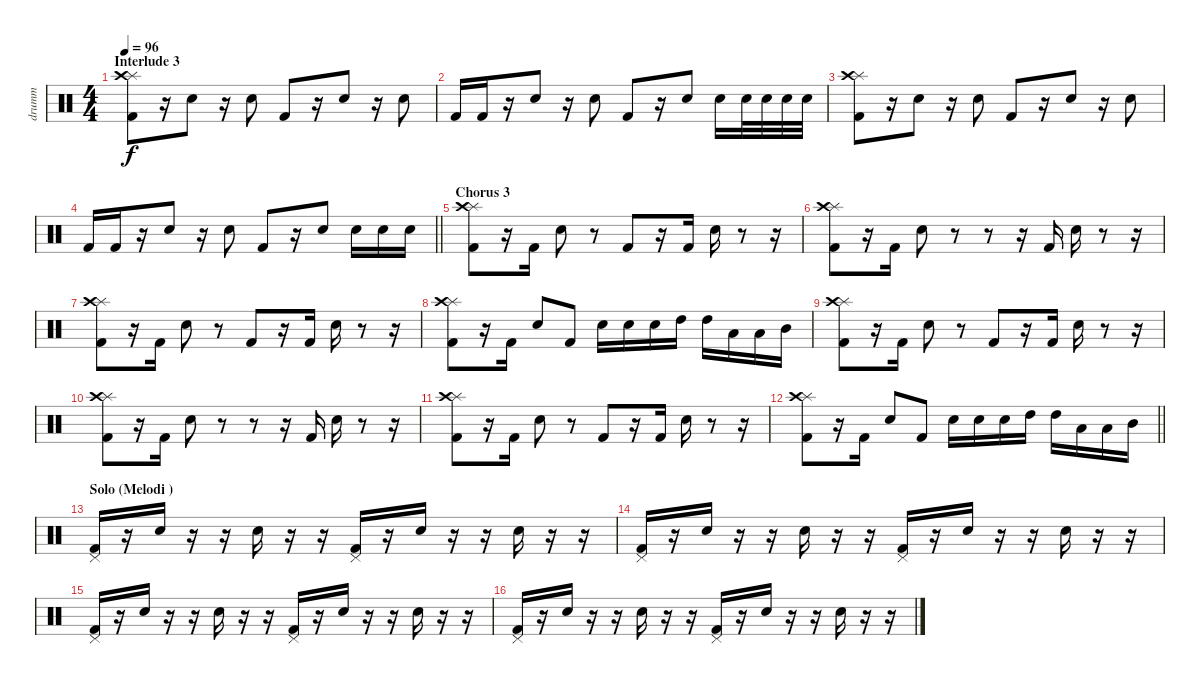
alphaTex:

\track ("drumm" "drumm") {instrument percussion}
\staff {score}
\articulation defaults
\ts (4 4)
\section ("" "Interlude 3")
\tempo 96
\clef neutral
\ks c
("Splash (hit)" "Crash high (hit)" "Kick (hit) 2").8{dy f} r.16 "Electric Snare (hit)".8 r.16 "Electric Snare (hit)".8 "Kick (hit) 2".8 r.16 "Electric Snare (hit)".8 r.16 "Electric Snare (hit)".8 |
"Kick (hit) 2".16 "Kick (hit) 2".16 r.16 "Electric Snare (hit)".8 r.16 "Electric Snare (hit)".8 "Kick (hit) 2".8 r.16 "Electric Snare (hit)".8 "Electric Snare (hit)".16 "Electric Snare (hit)".32 "Electric Snare (hit)".32 "Electric Snare (hit)".32 "Electric Snare (hit)".32 |
("Splash (hit)" "Crash high (hit)" "Kick (hit) 2").8 r.16 "Electric Snare (hit)".8 r.16 "Electric Snare (hit)".8 "Kick (hit) 2".8 r.16 "Electric Snare (hit)".8 r.16 "Electric Snare (hit)".8 |
\barLineRight lightlight "Kick (hit) 2".16 "Kick (hit) 2".16
r.16 "Electric Snare (hit)".8 r.16 "Electric Snare (hit)".8 "Kick (hit) 2".8 r.16 "Electric Snare (hit)".8 "Electric Snare (hit)".16 "Electric Snare (hit)".16 "Electric Snare (hit)".16 |
\section ("" "Chorus 3")
("Splash (hit)" "Crash high (hit)" "Kick (hit) 2").8 r.16 "Kick (hit) 2".16 "Electric Snare (hit)".8 r.8 "Kick (hit) 2".8 r.16 "Kick (hit) 2".16 "Electric Snare (hit)".16 r.8 r.16 |
("Splash (hit)" "Crash high (hit)" "Kick (hit) 2").8 r.16 "Kick (hit) 2".16 "Electric Snare (hit)".8 r.8 r.8 r.16 "Kick (hit) 2".16 "Electric Snare (hit)".16 r.8 r.16 |
("Splash (hit)" "Crash high (hit)" "Kick (hit) 2").8 r.16 "Kick (hit) 2".16 "Electric Snare (hit)".8 r.8 "Kick (hit) 2".8 r.16 "Kick (hit) 2".16 "Electric Snare (hit)".16 r.8 r.16 |
("Splash (hit)" "Crash high (hit)" "Kick (hit) 2").8 r.16 "Kick (hit) 2".16 "Electric Snare (hit)".8 "Kick (hit) 2".8 "Electric Snare (hit)".16 "Electric Snare (hit)".16 "Electric Snare (hit)".16 "High Tom (hit)".16 "High Tom (hit)".16 "Low Tom (hit)".16 "Low Tom (hit)".16 "Mid Tom (hit)".16 |
("Splash (hit)" "Crash high (hit)" "Kick (hit) 2").8 r.16 "Kick (hit) 2".16 "Electric Snare (hit)".8 r.8 "Kick (hit) 2".8 r.16 "Kick (hit) 2".16 "Electric Snare (hit)".16 r.8 r.16 |
("Splash (hit)" "Crash high (hit)" "Kick (hit) 2").8 r.16 "Kick (hit) 2".16 "Electric Snare (hit)".8 r.8 r.8 r.16 "Kick (hit) 2".16 "Electric Snare (hit)".16 r.8 r.16 |
("Splash (hit)" "Crash high (hit)" "Kick (hit) 2").8 r.16 "Kick (hit) 2".16 "Electric Snare (hit)".8 r.8 "Kick (hit) 2".8 r.16 "Kick (hit) 2".16 "Electric Snare (hit)".16 r.8 r.16 |
\barLineRight lightlight
("Splash (hit)" "Crash high (hit)" "Kick (hit) 2").8 r.16 "Kick (hit) 2".16 "Electric Snare (hit)".8 "Kick (hit) 2".8 "Electric Snare (hit)".16 "Electric Snare (hit)".16 "Electric Snare (hit)".16 "High Tom (hit)".16 "High Tom (hit)".16 "Low Tom (hit)".16 "Low Tom (hit)".16 "Mid Tom (hit)".16 |
\section ("" "Solo (Melodi )")
("Pedal Hi-Hat (hit)" "Kick (hit) 2").16 r.16 "Electric Snare (hit)".16 r.16 r.16 "Electric Snare (hit)".16 r.16 r.16 ("Pedal Hi-Hat (hit)" "Kick (hit) 2").16 r.16 "Electric Snare (hit)".16 r.16 r.16 "Electric Snare (hit)".16 r.16 r.16 |
("Pedal Hi-Hat (hit)" "Kick (hit) 2").16 r.16 "Electric Snare (hit)".16 r.16 r.16 "Electric Snare (hit)".16 r.16 r.16 ("Pedal Hi-Hat (hit)" "Kick (hit) 2").16 r.16 "Electric Snare (hit)".16 r.16 r.16 "Electric Snare (hit)".16 r.16 r.16 |
("Pedal Hi-Hat (hit)" "Kick (hit) 2").16 r.16 "Electric Snare (hit)".16 r.16 r.16 "Electric Snare (hit)".16 r.16 r.16 ("Pedal Hi-Hat (hit)" "Kick (hit) 2").16 r.16 "Electric Snare (hit)".16 r.16 r.16 "Electric Snare (hit)".16 r.16 r.16 |
("Pedal Hi-Hat (hit)" "Kick (hit) 2").16 r.16 "Electric Snare (hit)".16 r.16 r.16 "Electric Snare (hit)".16 r.16 r.16 ("Pedal Hi-Hat (hit)" "Kick (hit) 2").16 r.16 "Electric Snare (hit)".16 r.16 r.16 "Electric Snare (hit)".16 r.16 r.16
